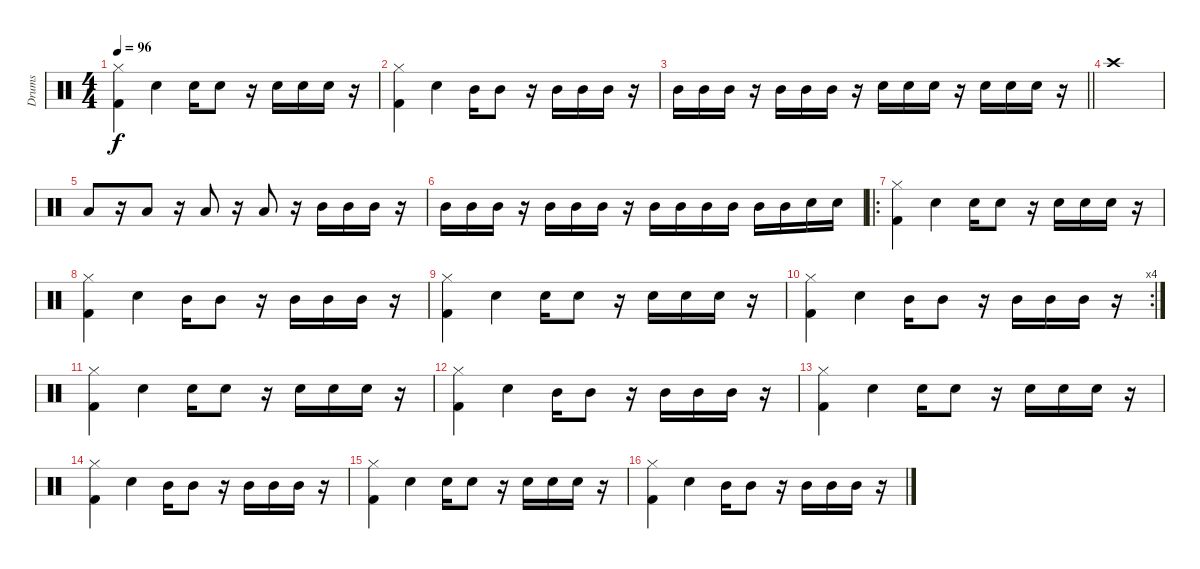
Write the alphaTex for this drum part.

\track ("Drums" "Drums") {instrument percussion}
\staff {score}
\articulation defaults
\ts (4 4)
\tempo 96
\clef neutral
\ks c
("Hi-Hat (closed)" "Kick (hit) 2").4{dy f} "Snare (hit) 2".4 "Snare (hit) 2".16 "Snare (hit) 2".8 r.16 "Snare (hit) 2".16 "Snare (hit) 2".16 "Snare (hit) 2".16 r.16 |
("Hi-Hat (closed)" "Kick (hit) 2").4 "Snare (hit) 2".4 "Mid Tom (hit)".16 "Mid Tom (hit)".8 r.16 "Mid Tom (hit)".16 "Mid Tom (hit)".16 "Mid Tom (hit)".16 r.16 |
\barLineRight lightlight "Mid Tom (hit)".16 "Mid Tom (hit)".16 "Mid Tom (hit)".16
r.16 "Mid Tom (hit)".16 "Mid Tom (hit)".16 "Mid Tom (hit)".16 r.16 "Snare (hit) 2".16 "Snare (hit) 2".16 "Snare (hit) 2".16 r.16 "Snare (hit) 2".16 "Snare (hit) 2".16 "Snare (hit) 2".16 r.16 |
"Crash high (hit)".1 |
"Low Tom (hit)".8 r.16 "Low Tom (hit)".8 r.16 "Low Tom (hit)".8 r.16 "Low Tom (hit)".8 r.16 "Mid Tom (hit)".16 "Mid Tom (hit)".16 "Mid Tom (hit)".16 r.16 |
"Mid Tom (hit)".16 "Mid Tom (hit)".16 "Mid Tom (hit)".16 r.16 "Mid Tom (hit)".16 "Mid Tom (hit)".16 "Mid Tom (hit)".16 r.16 "Mid Tom (hit)".16 "Mid Tom (hit)".16 "Mid Tom (hit)".16 "Mid Tom (hit)".16 "Mid Tom (hit)".16 "Mid Tom (hit)".16 "Snare (hit) 2".16 "Snare (hit) 2".16 |
\ro
("Hi-Hat (closed)" "Kick (hit) 2").4 "Snare (hit) 2".4 "Snare (hit) 2".16 "Snare (hit) 2".8 r.16 "Snare (hit) 2".16 "Snare (hit) 2".16 "Snare (hit) 2".16 r.16 |
("Hi-Hat (closed)" "Kick (hit) 2").4 "Snare (hit) 2".4 "Mid Tom (hit)".16 "Mid Tom (hit)".8 r.16 "Mid Tom (hit)".16 "Mid Tom (hit)".16 "Mid Tom (hit)".16 r.16 |
("Hi-Hat (closed)" "Kick (hit) 2").4 "Snare (hit) 2".4 "Snare (hit) 2".16 "Snare (hit) 2".8 r.16 "Snare (hit) 2".16 "Snare (hit) 2".16 "Snare (hit) 2".16 r.16 |
\rc 4
("Hi-Hat (closed)" "Kick (hit) 2").4 "Snare (hit) 2".4 "Mid Tom (hit)".16 "Mid Tom (hit)".8 r.16 "Mid Tom (hit)".16 "Mid Tom (hit)".16 "Mid Tom (hit)".16 r.16 |
("Hi-Hat (closed)" "Kick (hit) 2").4 "Snare (hit) 2".4 "Snare (hit) 2".16 "Snare (hit) 2".8 r.16 "Snare (hit) 2".16 "Snare (hit) 2".16 "Snare (hit) 2".16 r.16 |
("Hi-Hat (closed)" "Kick (hit) 2").4 "Snare (hit) 2".4 "Mid Tom (hit)".16 "Mid Tom (hit)".8 r.16 "Mid Tom (hit)".16 "Mid Tom (hit)".16 "Mid Tom (hit)".16 r.16 |
("Hi-Hat (closed)" "Kick (hit) 2").4 "Snare (hit) 2".4 "Snare (hit) 2".16 "Snare (hit) 2".8 r.16 "Snare (hit) 2".16 "Snare (hit) 2".16 "Snare (hit) 2".16 r.16 |
("Hi-Hat (closed)" "Kick (hit) 2").4 "Snare (hit) 2".4 "Mid Tom (hit)".16 "Mid Tom (hit)".8 r.16 "Mid Tom (hit)".16 "Mid Tom (hit)".16 "Mid Tom (hit)".16 r.16 |
("Hi-Hat (closed)" "Kick (hit) 2").4 "Snare (hit) 2".4 "Snare (hit) 2".16 "Snare (hit) 2".8 r.16 "Snare (hit) 2".16 "Snare (hit) 2".16 "Snare (hit) 2".16 r.16 |
("Hi-Hat (closed)" "Kick (hit) 2").4 "Snare (hit) 2".4 "Mid Tom (hit)".16 "Mid Tom (hit)".8 r.16 "Mid Tom (hit)".16 "Mid Tom (hit)".16 "Mid Tom (hit)".16 r.16
